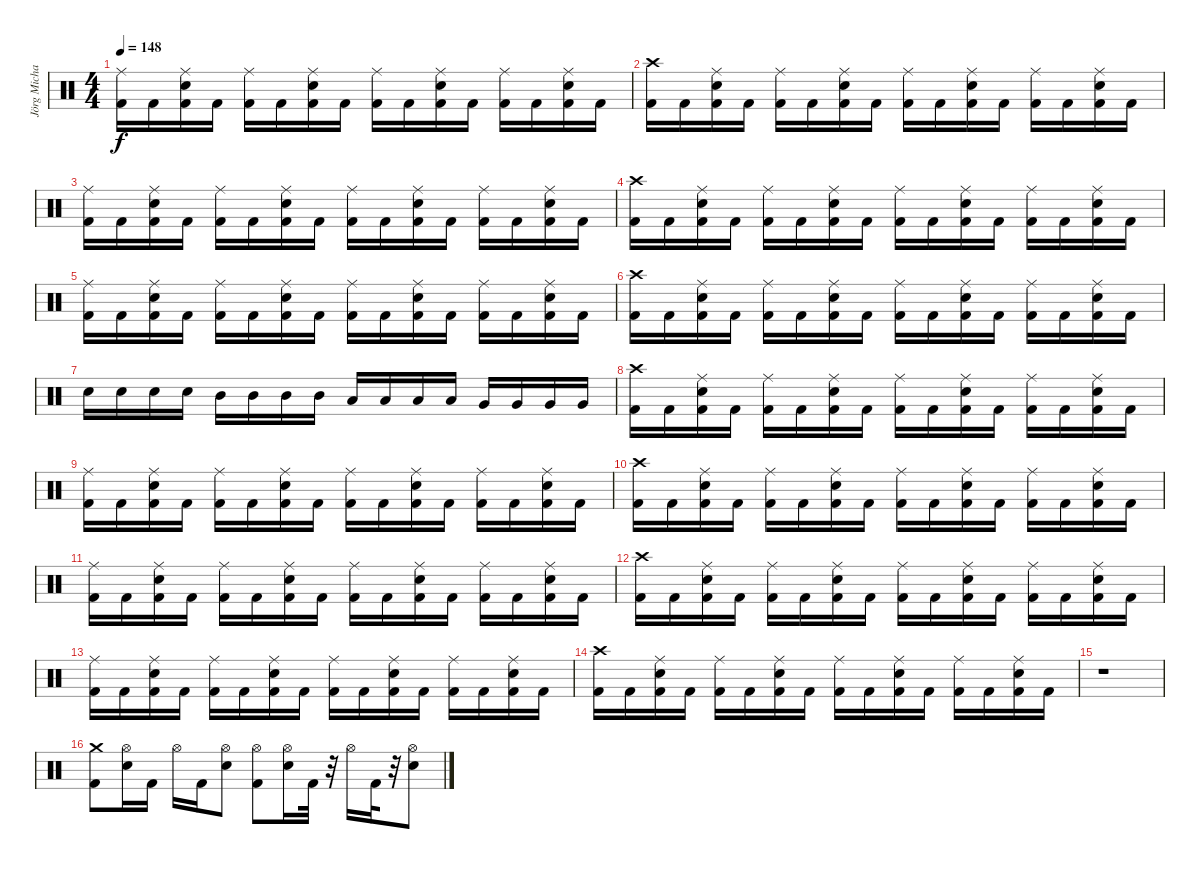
\track ("Jörg Michael" "Jörg Micha") {instrument percussion}
\staff {score}
\articulation defaults
\ts (4 4)
\tempo 148
\clef neutral
\ks c
("Kick (hit) 2" "Ride (middle)").16{dy f} "Kick (hit) 2".16 ("Ride (middle)" "Electric Snare (hit)" "Kick (hit) 2").16 "Kick (hit) 2".16 ("Kick (hit) 2" "Ride (middle)").16 "Kick (hit) 2".16 ("Electric Snare (hit)" "Kick (hit) 2" "Ride (middle)").16 "Kick (hit) 2".16 ("Kick (hit) 2" "Ride (middle)").16 "Kick (hit) 2".16 ("Ride (middle)" "Electric Snare (hit)" "Kick (hit) 2").16 "Kick (hit) 2".16 ("Kick (hit) 2" "Ride (middle)").16 "Kick (hit) 2".16 ("Electric Snare (hit)" "Kick (hit) 2" "Ride (middle)").16 "Kick (hit) 2".16 |
("Kick (hit) 2" "Crash high (hit)").16 "Kick (hit) 2".16 ("Electric Snare (hit)" "Kick (hit) 2" "Ride (middle)").16 "Kick (hit) 2".16 ("Kick (hit) 2" "Ride (middle)").16 "Kick (hit) 2".16 ("Electric Snare (hit)" "Kick (hit) 2" "Ride (middle)").16 "Kick (hit) 2".16 ("Kick (hit) 2" "Ride (middle)").16 "Kick (hit) 2".16 ("Electric Snare (hit)" "Kick (hit) 2" "Ride (middle)").16 "Kick (hit) 2".16 ("Kick (hit) 2" "Ride (middle)").16 "Kick (hit) 2".16 ("Electric Snare (hit)" "Kick (hit) 2" "Ride (middle)").16 "Kick (hit) 2".16 |
("Kick (hit) 2" "Ride (middle)").16 "Kick (hit) 2".16 ("Electric Snare (hit)" "Kick (hit) 2" "Ride (middle)").16 "Kick (hit) 2".16 ("Kick (hit) 2" "Ride (middle)").16 "Kick (hit) 2".16 ("Electric Snare (hit)" "Kick (hit) 2" "Ride (middle)").16 "Kick (hit) 2".16 ("Kick (hit) 2" "Ride (middle)").16 "Kick (hit) 2".16 ("Electric Snare (hit)" "Kick (hit) 2" "Ride (middle)").16 "Kick (hit) 2".16 ("Kick (hit) 2" "Ride (middle)").16 "Kick (hit) 2".16 ("Electric Snare (hit)" "Kick (hit) 2" "Ride (middle)").16 "Kick (hit) 2".16 |
("Kick (hit) 2" "Crash high (hit)").16 "Kick (hit) 2".16 ("Electric Snare (hit)" "Kick (hit) 2" "Ride (middle)").16 "Kick (hit) 2".16 ("Kick (hit) 2" "Ride (middle)").16 "Kick (hit) 2".16 ("Ride (middle)" "Electric Snare (hit)" "Kick (hit) 2").16 "Kick (hit) 2".16 ("Kick (hit) 2" "Ride (middle)").16 "Kick (hit) 2".16 ("Electric Snare (hit)" "Kick (hit) 2" "Ride (middle)").16 "Kick (hit) 2".16 ("Kick (hit) 2" "Ride (middle)").16 "Kick (hit) 2".16 ("Ride (middle)" "Electric Snare (hit)" "Kick (hit) 2").16 "Kick (hit) 2".16 |
("Kick (hit) 2" "Ride (middle)").16 "Kick (hit) 2".16 ("Electric Snare (hit)" "Kick (hit) 2" "Ride (middle)").16 "Kick (hit) 2".16 ("Kick (hit) 2" "Ride (middle)").16 "Kick (hit) 2".16 ("Electric Snare (hit)" "Kick (hit) 2" "Ride (middle)").16 "Kick (hit) 2".16 ("Kick (hit) 2" "Ride (middle)").16 "Kick (hit) 2".16 ("Electric Snare (hit)" "Kick (hit) 2" "Ride (middle)").16 "Kick (hit) 2".16 ("Kick (hit) 2" "Ride (middle)").16 "Kick (hit) 2".16 ("Electric Snare (hit)" "Kick (hit) 2" "Ride (middle)").16 "Kick (hit) 2".16 |
("Kick (hit) 2" "Crash high (hit)").16 "Kick (hit) 2".16 ("Electric Snare (hit)" "Kick (hit) 2" "Ride (middle)").16 "Kick (hit) 2".16 ("Kick (hit) 2" "Ride (middle)").16 "Kick (hit) 2".16 ("Electric Snare (hit)" "Kick (hit) 2" "Ride (middle)").16 "Kick (hit) 2".16 ("Kick (hit) 2" "Ride (middle)").16 "Kick (hit) 2".16 ("Electric Snare (hit)" "Kick (hit) 2" "Ride (middle)").16 "Kick (hit) 2".16 ("Kick (hit) 2" "Ride (middle)").16 "Kick (hit) 2".16 ("Electric Snare (hit)" "Kick (hit) 2" "Ride (middle)").16 "Kick (hit) 2".16 |
"Electric Snare (hit)".16 "Electric Snare (hit)".16 "Electric Snare (hit)".16 "Electric Snare (hit)".16 "Mid Tom (hit)".16 "Mid Tom (hit)".16 "Mid Tom (hit)".16 "Mid Tom (hit)".16 "Low Tom (hit)".16 "Low Tom (hit)".16 "Low Tom (hit)".16 "Low Tom (hit)".16 "Very Low Tom (hit)".16 "Very Low Tom (hit)".16 "Very Low Tom (hit)".16 "Very Low Tom (hit)".16 |
("Kick (hit) 2" "Crash high (hit)").16 "Kick (hit) 2".16 ("Electric Snare (hit)" "Kick (hit) 2" "Ride (middle)").16 "Kick (hit) 2".16 ("Kick (hit) 2" "Ride (middle)").16 "Kick (hit) 2".16 ("Electric Snare (hit)" "Kick (hit) 2" "Ride (middle)").16 "Kick (hit) 2".16 ("Kick (hit) 2" "Ride (middle)").16 "Kick (hit) 2".16 ("Electric Snare (hit)" "Kick (hit) 2" "Ride (middle)").16 "Kick (hit) 2".16 ("Kick (hit) 2" "Ride (middle)").16 "Kick (hit) 2".16 ("Electric Snare (hit)" "Kick (hit) 2" "Ride (middle)").16 "Kick (hit) 2".16 |
("Kick (hit) 2" "Ride (middle)").16 "Kick (hit) 2".16 ("Electric Snare (hit)" "Kick (hit) 2" "Ride (middle)").16 "Kick (hit) 2".16 ("Kick (hit) 2" "Ride (middle)").16 "Kick (hit) 2".16 ("Electric Snare (hit)" "Kick (hit) 2" "Ride (middle)").16 "Kick (hit) 2".16 ("Kick (hit) 2" "Ride (middle)").16 "Kick (hit) 2".16 ("Electric Snare (hit)" "Kick (hit) 2" "Ride (middle)").16 "Kick (hit) 2".16 ("Kick (hit) 2" "Ride (middle)").16 "Kick (hit) 2".16 ("Electric Snare (hit)" "Kick (hit) 2" "Ride (middle)").16 "Kick (hit) 2".16 |
("Kick (hit) 2" "Crash high (hit)").16 "Kick (hit) 2".16 ("Electric Snare (hit)" "Kick (hit) 2" "Ride (middle)").16 "Kick (hit) 2".16 ("Kick (hit) 2" "Ride (middle)").16 "Kick (hit) 2".16 ("Ride (middle)" "Electric Snare (hit)" "Kick (hit) 2").16 "Kick (hit) 2".16 ("Kick (hit) 2" "Ride (middle)").16 "Kick (hit) 2".16 ("Electric Snare (hit)" "Kick (hit) 2" "Ride (middle)").16 "Kick (hit) 2".16 ("Kick (hit) 2" "Ride (middle)").16 "Kick (hit) 2".16 ("Ride (middle)" "Electric Snare (hit)" "Kick (hit) 2").16 "Kick (hit) 2".16 |
("Kick (hit) 2" "Ride (middle)").16 "Kick (hit) 2".16 ("Electric Snare (hit)" "Kick (hit) 2" "Ride (middle)").16 "Kick (hit) 2".16 ("Kick (hit) 2" "Ride (middle)").16 "Kick (hit) 2".16 ("Electric Snare (hit)" "Kick (hit) 2" "Ride (middle)").16 "Kick (hit) 2".16 ("Kick (hit) 2" "Ride (middle)").16 "Kick (hit) 2".16 ("Electric Snare (hit)" "Kick (hit) 2" "Ride (middle)").16 "Kick (hit) 2".16 ("Kick (hit) 2" "Ride (middle)").16 "Kick (hit) 2".16 ("Electric Snare (hit)" "Kick (hit) 2" "Ride (middle)").16 "Kick (hit) 2".16 |
("Kick (hit) 2" "Crash high (hit)").16 "Kick (hit) 2".16 ("Electric Snare (hit)" "Kick (hit) 2" "Ride (middle)").16 "Kick (hit) 2".16 ("Kick (hit) 2" "Ride (middle)").16 "Kick (hit) 2".16 ("Electric Snare (hit)" "Kick (hit) 2" "Ride (middle)").16 "Kick (hit) 2".16 ("Kick (hit) 2" "Ride (middle)").16 "Kick (hit) 2".16 ("Electric Snare (hit)" "Kick (hit) 2" "Ride (middle)").16 "Kick (hit) 2".16 ("Kick (hit) 2" "Ride (middle)").16 "Kick (hit) 2".16 ("Electric Snare (hit)" "Kick (hit) 2" "Ride (middle)").16 "Kick (hit) 2".16 |
("Kick (hit) 2" "Ride (middle)").16 "Kick (hit) 2".16 ("Electric Snare (hit)" "Kick (hit) 2" "Ride (middle)").16 "Kick (hit) 2".16 ("Kick (hit) 2" "Ride (middle)").16 "Kick (hit) 2".16 ("Electric Snare (hit)" "Kick (hit) 2" "Ride (middle)").16 "Kick (hit) 2".16 ("Kick (hit) 2" "Ride (middle)").16 "Kick (hit) 2".16 ("Ride (middle)" "Electric Snare (hit)" "Kick (hit) 2").16 "Kick (hit) 2".16 ("Kick (hit) 2" "Ride (middle)").16 "Kick (hit) 2".16 ("Electric Snare (hit)" "Kick (hit) 2" "Ride (middle)").16 "Kick (hit) 2".16 |
("Kick (hit) 2" "Crash high (hit)").16 "Kick (hit) 2".16 ("Ride (middle)" "Electric Snare (hit)" "Kick (hit) 2").16 "Kick (hit) 2".16 ("Kick (hit) 2" "Ride (middle)").16 "Kick (hit) 2".16 ("Electric Snare (hit)" "Kick (hit) 2" "Ride (middle)").16 "Kick (hit) 2".16 ("Kick (hit) 2" "Ride (middle)").16 "Kick (hit) 2".16 ("Electric Snare (hit)" "Kick (hit) 2" "Ride (middle)").16 "Kick (hit) 2".16 ("Kick (hit) 2" "Ride (middle)").16 "Kick (hit) 2".16 ("Electric Snare (hit)" "Kick (hit) 2" "Ride (middle)").16 "Kick (hit) 2".16 |
r.1 |
("Crash medium (hit)" "Kick (hit) 2").8 ("Hi-Hat (open)" "Electric Snare (hit)").16 "Kick (hit) 2".16 "Hi-Hat (open)".16 "Kick (hit) 2".16 ("Hi-Hat (open)" "Electric Snare (hit)").8 ("Hi-Hat (open)" "Kick (hit) 2").8 ("Hi-Hat (open)" "Electric Snare (hit)").16 "Kick (hit) 2".32 r.32 "Hi-Hat (open)".16 "Kick (hit) 2".32 r.32 ("Hi-Hat (open)" "Electric Snare (hit)").8
